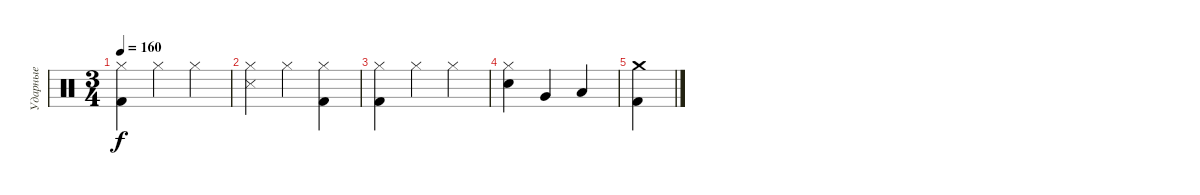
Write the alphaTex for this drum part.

\track ("Ударные" "Ударные") {instrument percussion}
\staff {score}
\articulation defaults
\ts (3 4)
\tempo 160
\clef neutral
\ks c
("Hi-Hat (closed)" "Kick (hit) 2").4{dy f} "Hi-Hat (closed)".4 "Hi-Hat (closed)".4 |
("Hi-Hat (closed)" "Snare (side stick) 3").4 "Hi-Hat (closed)".4 ("Hi-Hat (closed)" "Kick (hit) 2").4 |
("Hi-Hat (closed)" "Kick (hit) 2").4 "Hi-Hat (closed)".4 "Hi-Hat (closed)".4 |
("Hi-Hat (closed)" "Snare (hit) 2").4 "Very Low Tom (hit)".4 "Low Floor Tom (hit)".4 |
("Crash medium (hit)" "Kick (hit) 2").4
